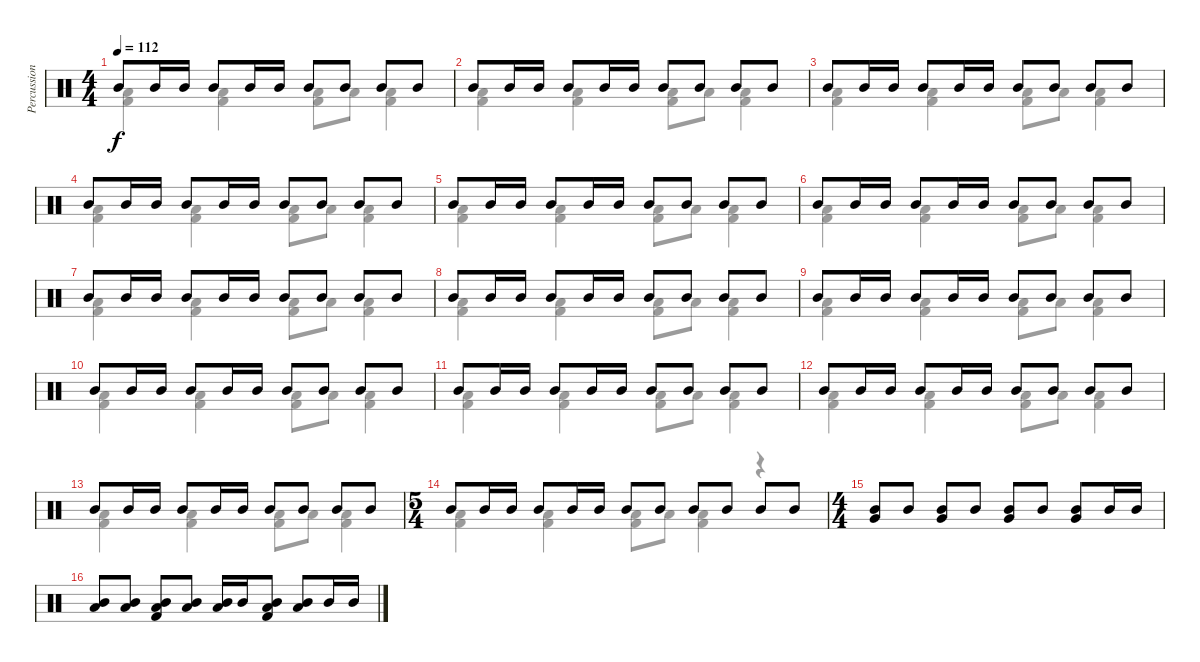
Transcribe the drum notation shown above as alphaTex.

\track ("Percussion" "Percussion") {instrument percussion}
\staff {score}
\articulation defaults
\voice
\ts (4 4)
\tempo 112
\clef neutral
\ks c "Mid Tom (hit)".8{dy f} "Mid Tom (hit)".16 "Mid Tom (hit)".16 "Mid Tom (hit)".8 "Mid Tom (hit)".16 "Mid Tom (hit)".16 "Mid Tom (hit)".8 "Mid Tom (hit)".8 "Mid Tom (hit)".8 "Mid Tom (hit)".8
|
"Mid Tom (hit)".8 "Mid Tom (hit)".16 "Mid Tom (hit)".16 "Mid Tom (hit)".8 "Mid Tom (hit)".16 "Mid Tom (hit)".16 "Mid Tom (hit)".8 "Mid Tom (hit)".8 "Mid Tom (hit)".8 "Mid Tom (hit)".8 |
"Mid Tom (hit)".8 "Mid Tom (hit)".16 "Mid Tom (hit)".16 "Mid Tom (hit)".8 "Mid Tom (hit)".16 "Mid Tom (hit)".16 "Mid Tom (hit)".8 "Mid Tom (hit)".8 "Mid Tom (hit)".8 "Mid Tom (hit)".8 |
"Mid Tom (hit)".8 "Mid Tom (hit)".16 "Mid Tom (hit)".16 "Mid Tom (hit)".8 "Mid Tom (hit)".16 "Mid Tom (hit)".16 "Mid Tom (hit)".8 "Mid Tom (hit)".8 "Mid Tom (hit)".8 "Mid Tom (hit)".8 |
"Mid Tom (hit)".8 "Mid Tom (hit)".16 "Mid Tom (hit)".16 "Mid Tom (hit)".8 "Mid Tom (hit)".16 "Mid Tom (hit)".16 "Mid Tom (hit)".8 "Mid Tom (hit)".8 "Mid Tom (hit)".8 "Mid Tom (hit)".8 |
"Mid Tom (hit)".8 "Mid Tom (hit)".16 "Mid Tom (hit)".16 "Mid Tom (hit)".8 "Mid Tom (hit)".16 "Mid Tom (hit)".16 "Mid Tom (hit)".8 "Mid Tom (hit)".8 "Mid Tom (hit)".8 "Mid Tom (hit)".8 |
"Mid Tom (hit)".8 "Mid Tom (hit)".16 "Mid Tom (hit)".16 "Mid Tom (hit)".8 "Mid Tom (hit)".16 "Mid Tom (hit)".16 "Mid Tom (hit)".8 "Mid Tom (hit)".8 "Mid Tom (hit)".8 "Mid Tom (hit)".8 |
"Mid Tom (hit)".8 "Mid Tom (hit)".16 "Mid Tom (hit)".16 "Mid Tom (hit)".8 "Mid Tom (hit)".16 "Mid Tom (hit)".16 "Mid Tom (hit)".8 "Mid Tom (hit)".8 "Mid Tom (hit)".8 "Mid Tom (hit)".8 |
"Mid Tom (hit)".8 "Mid Tom (hit)".16 "Mid Tom (hit)".16 "Mid Tom (hit)".8 "Mid Tom (hit)".16 "Mid Tom (hit)".16 "Mid Tom (hit)".8 "Mid Tom (hit)".8 "Mid Tom (hit)".8 "Mid Tom (hit)".8 |
"Mid Tom (hit)".8 "Mid Tom (hit)".16 "Mid Tom (hit)".16 "Mid Tom (hit)".8 "Mid Tom (hit)".16 "Mid Tom (hit)".16 "Mid Tom (hit)".8 "Mid Tom (hit)".8 "Mid Tom (hit)".8 "Mid Tom (hit)".8 |
"Mid Tom (hit)".8 "Mid Tom (hit)".16 "Mid Tom (hit)".16 "Mid Tom (hit)".8 "Mid Tom (hit)".16 "Mid Tom (hit)".16 "Mid Tom (hit)".8 "Mid Tom (hit)".8 "Mid Tom (hit)".8 "Mid Tom (hit)".8 |
"Mid Tom (hit)".8 "Mid Tom (hit)".16 "Mid Tom (hit)".16 "Mid Tom (hit)".8 "Mid Tom (hit)".16 "Mid Tom (hit)".16 "Mid Tom (hit)".8 "Mid Tom (hit)".8 "Mid Tom (hit)".8 "Mid Tom (hit)".8 |
"Mid Tom (hit)".8 "Mid Tom (hit)".16 "Mid Tom (hit)".16 "Mid Tom (hit)".8 "Mid Tom (hit)".16 "Mid Tom (hit)".16 "Mid Tom (hit)".8 "Mid Tom (hit)".8 "Mid Tom (hit)".8 "Mid Tom (hit)".8 |
\ts (5 4)
"Mid Tom (hit)".8 "Mid Tom (hit)".16 "Mid Tom (hit)".16 "Mid Tom (hit)".8 "Mid Tom (hit)".16 "Mid Tom (hit)".16 "Mid Tom (hit)".8 "Mid Tom (hit)".8 "Mid Tom (hit)".8 "Mid Tom (hit)".8 "Mid Tom (hit)".8 "Mid Tom (hit)".8 |
\ts (4 4)
("Mid Tom (hit)" "Very Low Tom (hit)").8 "Mid Tom (hit)".8 ("Mid Tom (hit)" "Very Low Tom (hit)").8 "Mid Tom (hit)".8 ("Mid Tom (hit)" "Very Low Tom (hit)").8 "Mid Tom (hit)".8 ("Mid Tom (hit)" "Very Low Tom (hit)").8 "Mid Tom (hit)".16 "Mid Tom (hit)".16 |
("Mid Tom (hit)" "Low Floor Tom (hit)").8 ("Mid Tom (hit)" "Low Tom (hit)").8 ("Mid Tom (hit)" "Low Floor Tom (hit)" "Kick (hit) 2").8 ("Mid Tom (hit)" "Low Tom (hit)").8 ("Mid Tom (hit)" "Low Floor Tom (hit)").16 "Mid Tom (hit)".16 ("Mid Tom (hit)" "Low Floor Tom (hit)" "Kick (hit) 2").8 ("Mid Tom (hit)" "Low Tom (hit)").8 "Mid Tom (hit)".16 "Mid Tom (hit)".16
\voice
\clef neutral
\ottava regular
\simile none
\ks c
("Low Tom (hit)" "Kick (hit) 2").4{dy f} ("Low Floor Tom (hit)" "Kick (hit) 2").4 ("Low Floor Tom (hit)" "Kick (hit) 2").8 "Low Floor Tom (hit)".8 ("Low Tom (hit)" "Kick (hit) 2").4 |
("Low Tom (hit)" "Kick (hit) 2").4 ("Low Floor Tom (hit)" "Kick (hit) 2").4 ("Low Floor Tom (hit)" "Kick (hit) 2").8 "Low Floor Tom (hit)".8 ("Low Tom (hit)" "Kick (hit) 2").4 |
("Low Tom (hit)" "Kick (hit) 2").4 ("Low Floor Tom (hit)" "Kick (hit) 2").4 ("Low Floor Tom (hit)" "Kick (hit) 2").8 "Low Floor Tom (hit)".8 ("Low Tom (hit)" "Kick (hit) 2").4 |
("Low Tom (hit)" "Kick (hit) 2").4 ("Low Floor Tom (hit)" "Kick (hit) 2").4 ("Low Floor Tom (hit)" "Kick (hit) 2").8 "Low Floor Tom (hit)".8 ("Low Tom (hit)" "Kick (hit) 2").4 |
("Low Tom (hit)" "Kick (hit) 2").4 ("Low Floor Tom (hit)" "Kick (hit) 2").4 ("Low Floor Tom (hit)" "Kick (hit) 2").8 "Low Floor Tom (hit)".8 ("Low Tom (hit)" "Kick (hit) 2").4 |
("Low Tom (hit)" "Kick (hit) 2").4 ("Low Floor Tom (hit)" "Kick (hit) 2").4 ("Low Floor Tom (hit)" "Kick (hit) 2").8 "Low Floor Tom (hit)".8 ("Low Tom (hit)" "Kick (hit) 2").4 |
("Low Tom (hit)" "Kick (hit) 2").4 ("Low Floor Tom (hit)" "Kick (hit) 2").4 ("Low Floor Tom (hit)" "Kick (hit) 2").8 "Low Floor Tom (hit)".8 ("Low Tom (hit)" "Kick (hit) 2").4 |
("Low Tom (hit)" "Kick (hit) 2").4 ("Low Floor Tom (hit)" "Kick (hit) 2").4 ("Low Floor Tom (hit)" "Kick (hit) 2").8 "Low Floor Tom (hit)".8 ("Low Tom (hit)" "Kick (hit) 2").4 |
("Low Tom (hit)" "Kick (hit) 2").4 ("Low Floor Tom (hit)" "Kick (hit) 2").4 ("Low Floor Tom (hit)" "Kick (hit) 2").8 "Low Floor Tom (hit)".8 ("Low Tom (hit)" "Kick (hit) 2").4 |
("Low Tom (hit)" "Kick (hit) 2").4 ("Low Floor Tom (hit)" "Kick (hit) 2").4 ("Low Floor Tom (hit)" "Kick (hit) 2").8 "Low Floor Tom (hit)".8 ("Low Tom (hit)" "Kick (hit) 2").4 |
("Low Tom (hit)" "Kick (hit) 2").4 ("Low Floor Tom (hit)" "Kick (hit) 2").4 ("Low Floor Tom (hit)" "Kick (hit) 2").8 "Low Floor Tom (hit)".8 ("Low Tom (hit)" "Kick (hit) 2").4 |
("Low Tom (hit)" "Kick (hit) 2").4 ("Low Floor Tom (hit)" "Kick (hit) 2").4 ("Low Floor Tom (hit)" "Kick (hit) 2").8 "Low Floor Tom (hit)".8 ("Low Tom (hit)" "Kick (hit) 2").4 |
("Low Tom (hit)" "Kick (hit) 2").4 ("Low Floor Tom (hit)" "Kick (hit) 2").4 ("Low Floor Tom (hit)" "Kick (hit) 2").8 "Low Floor Tom (hit)".8 ("Low Tom (hit)" "Kick (hit) 2").4 |
("Low Tom (hit)" "Kick (hit) 2").4 ("Low Floor Tom (hit)" "Kick (hit) 2").4 ("Low Floor Tom (hit)" "Kick (hit) 2").8 "Low Floor Tom (hit)".8 ("Low Tom (hit)" "Kick (hit) 2").4 r.4 |
|
